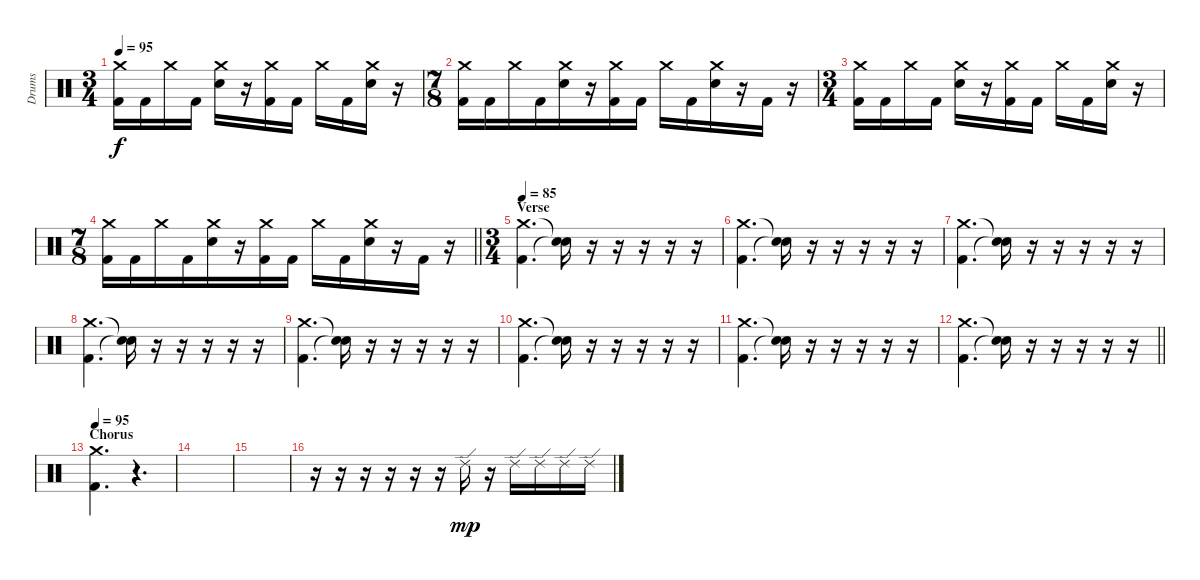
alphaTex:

\track ("Drums" "Drums") {instrument percussion}
\staff {score}
\articulation defaults
\ts (3 4)
\tempo 95
\clef neutral
\ks c
("Crash medium (hit)" "Kick (hit) 2").16{dy f} "Kick (hit) 2".16 "Crash medium (hit)".16 "Kick (hit) 2".16 ("Crash medium (hit)" "Electric Snare (hit)").16 r.16 ("Crash medium (hit)" "Kick (hit) 2").16 "Kick (hit) 2".16 "Crash medium (hit)".16 "Kick (hit) 2".16 ("Crash medium (hit)" "Electric Snare (hit)").16 r.16 |
\ts (7 8)
("Crash medium (hit)" "Kick (hit) 2").16 "Kick (hit) 2".16 "Crash medium (hit)".16 "Kick (hit) 2".16 ("Crash medium (hit)" "Electric Snare (hit)").16 r.16 ("Crash medium (hit)" "Kick (hit) 2").16 "Kick (hit) 2".16 "Crash medium (hit)".16 "Kick (hit) 2".16 ("Crash medium (hit)" "Electric Snare (hit)").16 r.16 "Kick (hit) 2".16 r.16 |
\ts (3 4)
("Crash medium (hit)" "Kick (hit) 2").16 "Kick (hit) 2".16 "Crash medium (hit)".16 "Kick (hit) 2".16 ("Crash medium (hit)" "Electric Snare (hit)").16 r.16 ("Crash medium (hit)" "Kick (hit) 2").16 "Kick (hit) 2".16 "Crash medium (hit)".16 "Kick (hit) 2".16 ("Crash medium (hit)" "Electric Snare (hit)").16 r.16 |
\ts (7 8)
\barLineRight lightlight
("Crash medium (hit)" "Kick (hit) 2").16 "Kick (hit) 2".16 "Crash medium (hit)".16 "Kick (hit) 2".16 ("Crash medium (hit)" "Electric Snare (hit)").16 r.16 ("Crash medium (hit)" "Kick (hit) 2").16 "Kick (hit) 2".16 "Crash medium (hit)".16 "Kick (hit) 2".16 ("Crash medium (hit)" "Electric Snare (hit)").16 r.16 "Kick (hit) 2".16 r.16 |
\ts (3 4)
\section ("" "Verse")
\tempo 85
("Crash medium (hit)" "Kick (hit) 2").4{d} ("Snare (hit)"{t} "Snare (hit)"{t}).16 r.16 r.16 r.16 r.16 r.16 |
("Crash medium (hit)" "Kick (hit) 2").4{d} ("Snare (hit)"{t} "Snare (hit)"{t}).16 r.16 r.16 r.16 r.16 r.16 |
("Crash medium (hit)" "Kick (hit) 2").4{d} ("Snare (hit)"{t} "Snare (hit)"{t}).16 r.16 r.16 r.16 r.16 r.16 |
("Crash medium (hit)" "Kick (hit) 2").4{d} ("Snare (hit)"{t} "Snare (hit)"{t}).16 r.16 r.16 r.16 r.16 r.16 |
("Crash medium (hit)" "Kick (hit) 2").4{d} ("Snare (hit)"{t} "Snare (hit)"{t}).16 r.16 r.16 r.16 r.16 r.16 |
("Crash medium (hit)" "Kick (hit) 2").4{d} ("Snare (hit)"{t} "Snare (hit)"{t}).16 r.16 r.16 r.16 r.16 r.16 |
("Crash medium (hit)" "Kick (hit) 2").4{d} ("Snare (hit)"{t} "Snare (hit)"{t}).16 r.16 r.16 r.16 r.16 r.16 |
\barLineRight lightlight
("Crash medium (hit)" "Kick (hit) 2").4{d} ("Snare (hit)"{t} "Snare (hit)"{t}).16 r.16 r.16 r.16 r.16 r.16 |
\section ("" "Chorus")
\tempo 95
("Crash medium (hit)" "Kick (hit) 2").4{d} r.4{d} |
|
|
r.16 r.16 r.16 r.16 r.16 r.16 "Ride (edge) 2".16{dy mp} r.16 "Ride (edge) 2".16 "Ride (edge) 2".16 "Ride (edge) 2".16 "Ride (edge) 2".16
